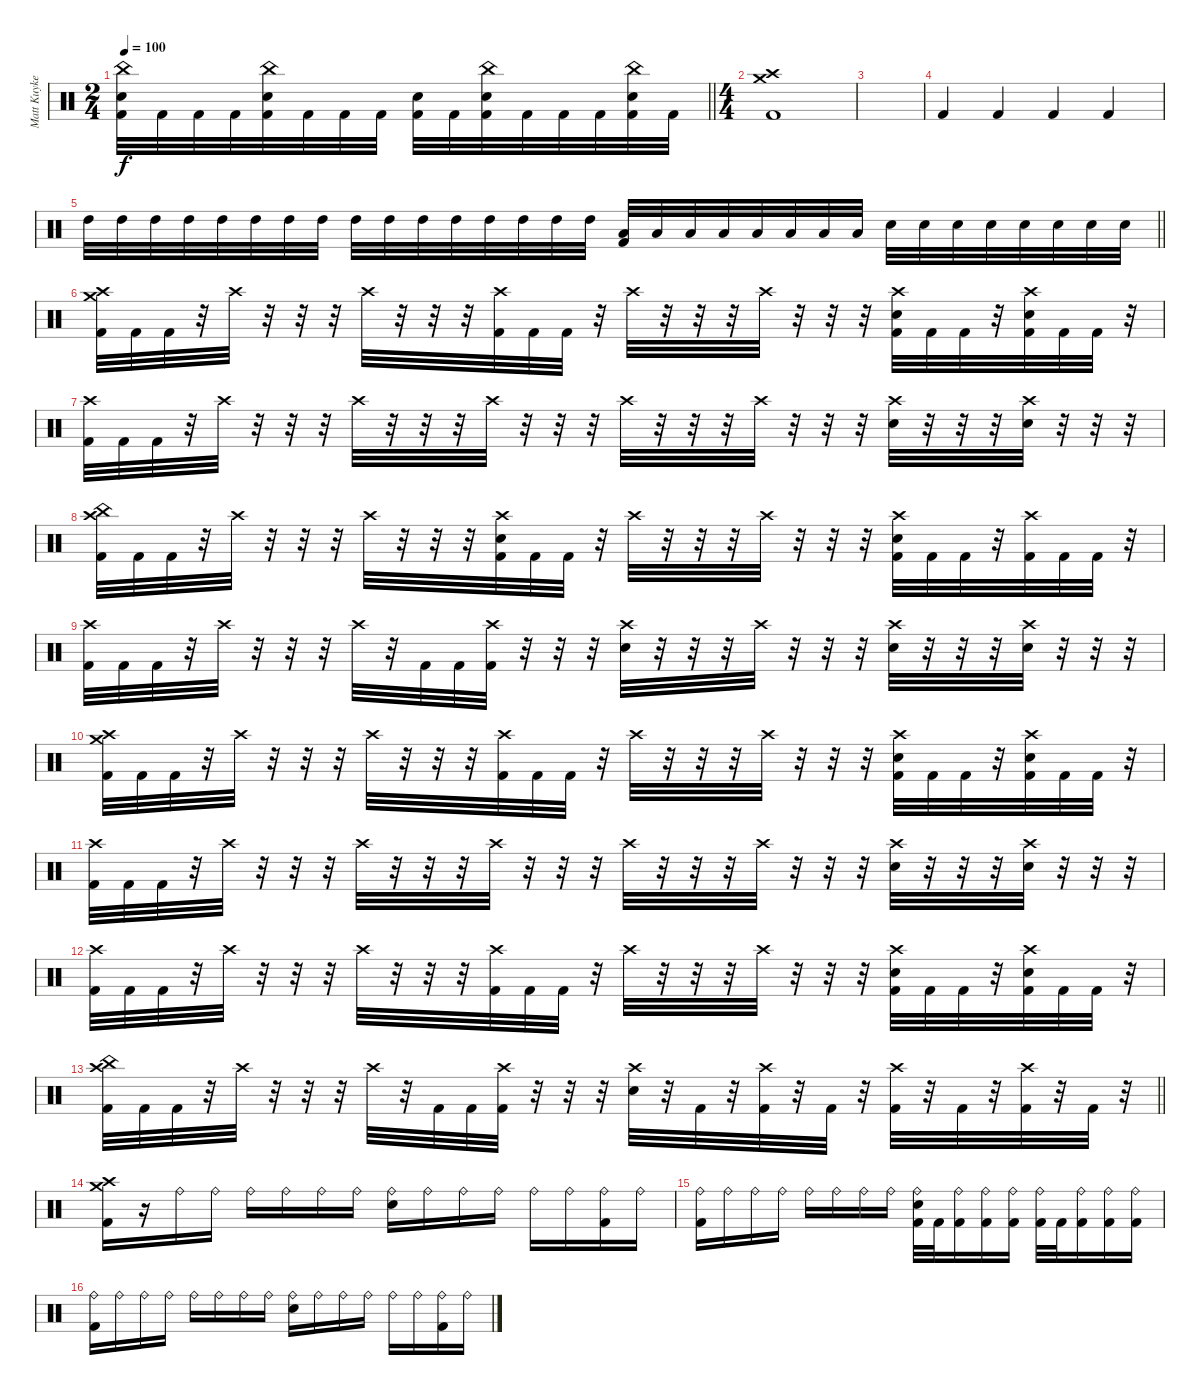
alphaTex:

\track ("Matt Kuykendall " "Matt Kuyke") {instrument percussion}
\staff {score}
\articulation defaults
\ts (2 4)
\tempo 100
\clef neutral
\barLineRight lightlight
\ks c
("China (hit)" "Snare (hit) 2" "Kick (hit) 2").32{dy f} "Kick (hit) 2".32 "Kick (hit) 2".32 "Kick (hit) 2".32 ("China (hit)" "Snare (hit) 2" "Kick (hit) 2").32 "Kick (hit) 2".32 "Kick (hit) 2".32 "Kick (hit) 2".32 ("Snare (hit) 2" "Kick (hit) 2").32 "Kick (hit) 2".32 ("China (hit)" "Snare (hit) 2" "Kick (hit) 2").32 "Kick (hit) 2".32 "Kick (hit) 2".32 "Kick (hit) 2".32 ("China (hit)" "Snare (hit) 2" "Kick (hit) 2").32 "Kick (hit) 2".32 |
\ts (4 4)
\section ("" "")
("Crash high (hit)" "Crash medium (hit)" "Kick (hit) 2").1 |
|
"Kick (hit) 2".4 "Kick (hit) 2".4 "Kick (hit) 2".4 "Kick (hit) 2".4 |
\barLineRight lightlight "High Tom (hit)".32 "High Tom (hit)".32 "High Tom (hit)".32 "High Tom (hit)".32 "High Tom (hit)".32 "High Tom (hit)".32 "High Tom (hit)".32 "High Tom (hit)".32 "High Tom (hit)".32 "High Tom (hit)".32 "High Tom (hit)".32 "High Tom (hit)".32 "High Tom (hit)".32 "High Tom (hit)".32 "High Tom (hit)".32 "High Tom (hit)".32
("Low Tom (hit)" "Kick (hit) 2").32 "Low Tom (hit)".32 "Low Tom (hit)".32 "Low Tom (hit)".32 "Low Tom (hit)".32 "Low Tom (hit)".32 "Low Tom (hit)".32 "Low Tom (hit)".32 "Snare (hit) 2".32 "Snare (hit) 2".32 "Snare (hit) 2".32 "Snare (hit) 2".32 "Snare (hit) 2".32 "Snare (hit) 2".32 "Snare (hit) 2".32 "Snare (hit) 2".32 |
\section ("" "")
("Crash high (hit)" "Crash medium (hit)" "Kick (hit) 2").32 "Kick (hit) 2".32 "Kick (hit) 2".32 r.32 "Crash high (hit)".32 r.32 r.32 r.32 "Crash high (hit)".32 r.32 r.32 r.32 ("Crash high (hit)" "Kick (hit) 2").32 "Kick (hit) 2".32 "Kick (hit) 2".32 r.32 "Crash high (hit)".32 r.32 r.32 r.32 "Crash high (hit)".32 r.32 r.32 r.32 ("Crash high (hit)" "Snare (hit) 2" "Kick (hit) 2").32 "Kick (hit) 2".32 "Kick (hit) 2".32 r.32 ("Crash high (hit)" "Snare (hit) 2" "Kick (hit) 2").32 "Kick (hit) 2".32 "Kick (hit) 2".32 r.32 |
("Crash high (hit)" "Kick (hit) 2").32 "Kick (hit) 2".32 "Kick (hit) 2".32 r.32 "Crash high (hit)".32 r.32 r.32 r.32 "Crash high (hit)".32 r.32 r.32 r.32 "Crash high (hit)".32 r.32 r.32 r.32 "Crash high (hit)".32 r.32 r.32 r.32 "Crash high (hit)".32 r.32 r.32 r.32 ("Crash high (hit)" "Snare (hit) 2").32 r.32 r.32 r.32 ("Crash high (hit)" "Snare (hit) 2").32 r.32 r.32 r.32 |
("Crash high (hit)" "China (hit)" "Kick (hit) 2").32 "Kick (hit) 2".32 "Kick (hit) 2".32 r.32 "Crash high (hit)".32 r.32 r.32 r.32 "Crash high (hit)".32 r.32 r.32 r.32 ("Crash high (hit)" "Snare (hit) 2" "Kick (hit) 2").32 "Kick (hit) 2".32 "Kick (hit) 2".32 r.32 "Crash high (hit)".32 r.32 r.32 r.32 "Crash high (hit)".32 r.32 r.32 r.32 ("Crash high (hit)" "Snare (hit) 2" "Kick (hit) 2").32 "Kick (hit) 2".32 "Kick (hit) 2".32 r.32 ("Crash high (hit)" "Kick (hit) 2").32 "Kick (hit) 2".32 "Kick (hit) 2".32 r.32 |
("Crash high (hit)" "Kick (hit) 2").32 "Kick (hit) 2".32 "Kick (hit) 2".32 r.32 "Crash high (hit)".32 r.32 r.32 r.32 "Crash high (hit)".32 r.32 "Kick (hit) 2".32 "Kick (hit) 2".32 ("Crash high (hit)" "Kick (hit) 2").32 r.32 r.32 r.32 ("Crash high (hit)" "Snare (hit) 2").32 r.32 r.32 r.32 "Crash high (hit)".32 r.32 r.32 r.32 ("Crash high (hit)" "Snare (hit) 2").32 r.32 r.32 r.32 ("Crash high (hit)" "Snare (hit) 2").32 r.32 r.32 r.32 |
("Crash high (hit)" "Crash medium (hit)" "Kick (hit) 2").32 "Kick (hit) 2".32 "Kick (hit) 2".32 r.32 "Crash high (hit)".32 r.32 r.32 r.32 "Crash high (hit)".32 r.32 r.32 r.32 ("Crash high (hit)" "Kick (hit) 2").32 "Kick (hit) 2".32 "Kick (hit) 2".32 r.32 "Crash high (hit)".32 r.32 r.32 r.32 "Crash high (hit)".32 r.32 r.32 r.32 ("Crash high (hit)" "Snare (hit) 2" "Kick (hit) 2").32 "Kick (hit) 2".32 "Kick (hit) 2".32 r.32 ("Crash high (hit)" "Snare (hit) 2" "Kick (hit) 2").32 "Kick (hit) 2".32 "Kick (hit) 2".32 r.32 |
("Crash high (hit)" "Kick (hit) 2").32 "Kick (hit) 2".32 "Kick (hit) 2".32 r.32 "Crash high (hit)".32 r.32 r.32 r.32 "Crash high (hit)".32 r.32 r.32 r.32 "Crash high (hit)".32 r.32 r.32 r.32 "Crash high (hit)".32 r.32 r.32 r.32 "Crash high (hit)".32 r.32 r.32 r.32 ("Crash high (hit)" "Snare (hit) 2").32 r.32 r.32 r.32 ("Crash high (hit)" "Snare (hit) 2").32 r.32 r.32 r.32 |
("Crash high (hit)" "Kick (hit) 2").32 "Kick (hit) 2".32 "Kick (hit) 2".32 r.32 "Crash high (hit)".32 r.32 r.32 r.32 "Crash high (hit)".32 r.32 r.32 r.32 ("Crash high (hit)" "Kick (hit) 2").32 "Kick (hit) 2".32 "Kick (hit) 2".32 r.32 "Crash high (hit)".32 r.32 r.32 r.32 "Crash high (hit)".32 r.32 r.32 r.32 ("Crash high (hit)" "Snare (hit) 2" "Kick (hit) 2").32 "Kick (hit) 2".32 "Kick (hit) 2".32 r.32 ("Crash high (hit)" "Snare (hit) 2" "Kick (hit) 2").32 "Kick (hit) 2".32 "Kick (hit) 2".32 r.32 |
\barLineRight lightlight
("Crash high (hit)" "China (hit)" "Kick (hit) 2").32 "Kick (hit) 2".32 "Kick (hit) 2".32 r.32 "Crash high (hit)".32 r.32 r.32 r.32 "Crash high (hit)".32 r.32 "Kick (hit) 2".32 "Kick (hit) 2".32 ("Crash high (hit)" "Kick (hit) 2").32 r.32 r.32 r.32 ("Crash high (hit)" "Snare (hit) 2").32 r.32 "Kick (hit) 2".32 r.32 ("Crash high (hit)" "Kick (hit) 2").32 r.32 "Kick (hit) 2".32 r.32 ("Crash high (hit)" "Kick (hit) 2").32 r.32 "Kick (hit) 2".32 r.32 ("Crash high (hit)" "Kick (hit) 2").32 r.32 "Kick (hit) 2".32 r.32 |
\section ("" "")
("Crash high (hit)" "Crash medium (hit)" "Kick (hit) 2").16 r.16 "Ride (bell)".16 "Ride (bell)".16 "Ride (bell)".16 "Ride (bell)".16 "Ride (bell)".16 "Ride (bell)".16 ("Ride (bell)" "Snare (hit) 2").16 "Ride (bell)".16 "Ride (bell)".16 "Ride (bell)".16 "Ride (bell)".16 "Ride (bell)".16 ("Ride (bell)" "Kick (hit) 2").16 "Ride (bell)".16 |
("Ride (bell)" "Kick (hit) 2").16 "Ride (bell)".16 "Ride (bell)".16 "Ride (bell)".16 "Ride (bell)".16 "Ride (bell)".16 "Ride (bell)".16 "Ride (bell)".16 ("Ride (bell)" "Snare (hit) 2" "Kick (hit) 2").32 "Kick (hit) 2".32 ("Ride (bell)" "Kick (hit) 2").16 ("Ride (bell)" "Kick (hit) 2").16 ("Ride (bell)" "Kick (hit) 2").16 ("Ride (bell)" "Kick (hit) 2").32 "Kick (hit) 2".32 ("Ride (bell)" "Kick (hit) 2").16 ("Ride (bell)" "Kick (hit) 2").16 ("Ride (bell)" "Kick (hit) 2").16 |
("Ride (bell)" "Kick (hit) 2").16 "Ride (bell)".16 "Ride (bell)".16 "Ride (bell)".16 "Ride (bell)".16 "Ride (bell)".16 "Ride (bell)".16 "Ride (bell)".16 ("Ride (bell)" "Snare (hit) 2").16 "Ride (bell)".16 "Ride (bell)".16 "Ride (bell)".16 "Ride (bell)".16 "Ride (bell)".16 ("Ride (bell)" "Kick (hit) 2").16 "Ride (bell)".16
